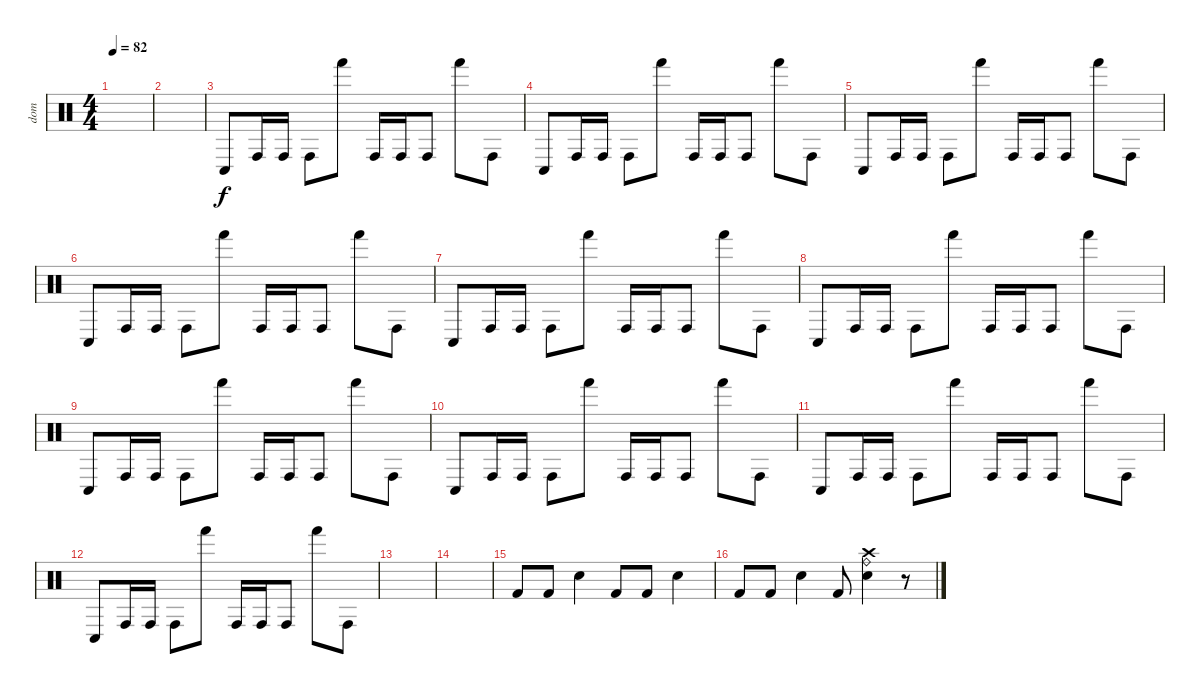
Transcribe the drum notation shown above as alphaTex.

\track ("dom" "dom") {instrument percussion}
\staff {score}
\articulation defaults
\ts (4 4)
\tempo 82
\clef neutral
\ks c
|
|
"Conga low (hit)".8 "Conga high (hit)".16 "Conga high (hit)".16 "Conga high (hit)".8 "Hand (hit)".8 "Conga high (hit)".16 "Conga high (hit)".16 "Conga high (hit)".8 "Hand (hit)".8 "Conga high (hit)".8 |
"Conga low (hit)".8 "Conga high (hit)".16 "Conga high (hit)".16 "Conga high (hit)".8 "Hand (hit)".8 "Conga high (hit)".16 "Conga high (hit)".16 "Conga high (hit)".8 "Hand (hit)".8 "Conga high (hit)".8 |
"Conga low (hit)".8 "Conga high (hit)".16 "Conga high (hit)".16 "Conga high (hit)".8 "Hand (hit)".8 "Conga high (hit)".16 "Conga high (hit)".16 "Conga high (hit)".8 "Hand (hit)".8 "Conga high (hit)".8 |
"Conga low (hit)".8 "Conga high (hit)".16 "Conga high (hit)".16 "Conga high (hit)".8 "Hand (hit)".8 "Conga high (hit)".16 "Conga high (hit)".16 "Conga high (hit)".8 "Hand (hit)".8 "Conga high (hit)".8 |
"Conga low (hit)".8 "Conga high (hit)".16 "Conga high (hit)".16 "Conga high (hit)".8 "Hand (hit)".8 "Conga high (hit)".16 "Conga high (hit)".16 "Conga high (hit)".8 "Hand (hit)".8 "Conga high (hit)".8 |
"Conga low (hit)".8 "Conga high (hit)".16 "Conga high (hit)".16 "Conga high (hit)".8 "Hand (hit)".8 "Conga high (hit)".16 "Conga high (hit)".16 "Conga high (hit)".8 "Hand (hit)".8 "Conga high (hit)".8 |
"Conga low (hit)".8 "Conga high (hit)".16 "Conga high (hit)".16 "Conga high (hit)".8 "Hand (hit)".8 "Conga high (hit)".16 "Conga high (hit)".16 "Conga high (hit)".8 "Hand (hit)".8 "Conga high (hit)".8 |
"Conga low (hit)".8 "Conga high (hit)".16 "Conga high (hit)".16 "Conga high (hit)".8 "Hand (hit)".8 "Conga high (hit)".16 "Conga high (hit)".16 "Conga high (hit)".8 "Hand (hit)".8 "Conga high (hit)".8 |
"Conga low (hit)".8 "Conga high (hit)".16 "Conga high (hit)".16 "Conga high (hit)".8 "Hand (hit)".8 "Conga high (hit)".16 "Conga high (hit)".16 "Conga high (hit)".8 "Hand (hit)".8 "Conga high (hit)".8 |
"Conga low (hit)".8 "Conga high (hit)".16 "Conga high (hit)".16 "Conga high (hit)".8 "Hand (hit)".8 "Conga high (hit)".16 "Conga high (hit)".16 "Conga high (hit)".8 "Hand (hit)".8 "Conga high (hit)".8 |
|
|
"Kick (hit) 2".8 "Kick (hit) 2".8 "Electric Snare (hit)".4 "Kick (hit) 2".8 "Kick (hit) 2".8 "Electric Snare (hit)".4 |
"Kick (hit) 2".8 "Kick (hit) 2".8 "Electric Snare (hit)".4 "Kick (hit) 2".8 ("Crash high (hit)" "Ride (bell)" "Electric Snare (hit)").4 r.8
